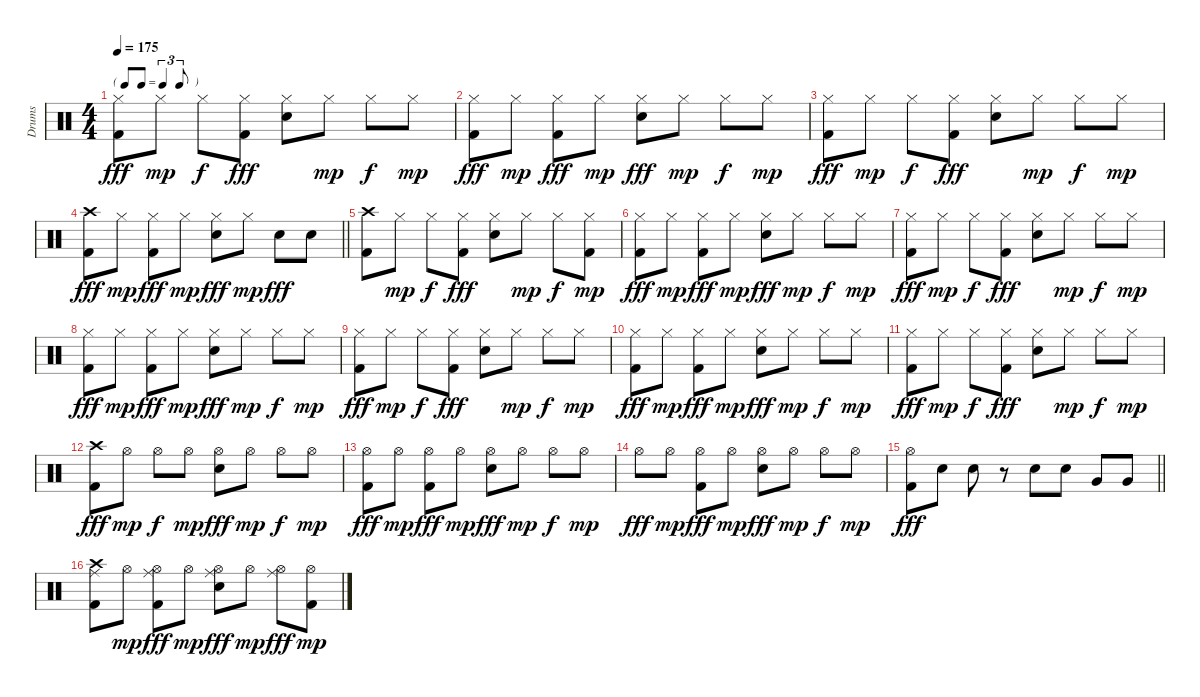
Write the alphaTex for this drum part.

\track ("Drums" "Drums") {instrument percussion}
\staff {score}
\articulation defaults
\ts (4 4)
\tf triplet8th
\tempo 175
\clef neutral
\ks c
("Hi-Hat (closed)" "Kick (hit) 2").8{dy fff} "Hi-Hat (closed)".8{dy mp} "Hi-Hat (closed)".8{dy f} ("Hi-Hat (closed)" "Kick (hit) 2").8{dy fff} ("Hi-Hat (closed)" "Electric Snare (hit)").8 "Hi-Hat (closed)".8{dy mp} "Hi-Hat (closed)".8{dy f} "Hi-Hat (closed)".8{dy mp} |
("Hi-Hat (closed)" "Kick (hit) 2").8{dy fff} "Hi-Hat (closed)".8{dy mp} ("Hi-Hat (closed)" "Kick (hit) 2").8{dy fff} "Hi-Hat (closed)".8{dy mp} ("Hi-Hat (closed)" "Electric Snare (hit)").8{dy fff} "Hi-Hat (closed)".8{dy mp} "Hi-Hat (closed)".8{dy f} "Hi-Hat (closed)".8{dy mp} |
("Hi-Hat (closed)" "Kick (hit) 2").8{dy fff} "Hi-Hat (closed)".8{dy mp} "Hi-Hat (closed)".8{dy f} ("Hi-Hat (closed)" "Kick (hit) 2").8{dy fff} ("Hi-Hat (closed)" "Electric Snare (hit)").8 "Hi-Hat (closed)".8{dy mp} "Hi-Hat (closed)".8{dy f} "Hi-Hat (closed)".8{dy mp} |
\barLineRight lightlight
("Crash high (hit)" "Kick (hit) 2").8{dy fff} "Hi-Hat (closed)".8{dy mp} ("Hi-Hat (closed)" "Kick (hit) 2").8{dy fff} "Hi-Hat (closed)".8{dy mp} ("Hi-Hat (closed)" "Electric Snare (hit)").8{dy fff} "Hi-Hat (closed)".8{dy mp} "Electric Snare (hit)".8{dy fff} "Electric Snare (hit)".8 |
("Crash high (hit)" "Kick (hit) 2").8 "Hi-Hat (closed)".8{dy mp} "Hi-Hat (closed)".8{dy f} ("Hi-Hat (closed)" "Kick (hit) 2").8{dy fff} ("Hi-Hat (closed)" "Electric Snare (hit)").8 "Hi-Hat (closed)".8{dy mp} "Hi-Hat (closed)".8{dy f} ("Hi-Hat (closed)" "Kick (hit) 2").8{dy mp} |
("Hi-Hat (closed)" "Kick (hit) 2").8{dy fff} "Hi-Hat (closed)".8{dy mp} ("Hi-Hat (closed)" "Kick (hit) 2").8{dy fff} "Hi-Hat (closed)".8{dy mp} ("Hi-Hat (closed)" "Electric Snare (hit)").8{dy fff} "Hi-Hat (closed)".8{dy mp} "Hi-Hat (closed)".8{dy f} "Hi-Hat (closed)".8{dy mp} |
("Hi-Hat (closed)" "Kick (hit) 2").8{dy fff} "Hi-Hat (closed)".8{dy mp} "Hi-Hat (closed)".8{dy f} ("Hi-Hat (closed)" "Kick (hit) 2").8{dy fff} ("Hi-Hat (closed)" "Electric Snare (hit)").8 "Hi-Hat (closed)".8{dy mp} "Hi-Hat (closed)".8{dy f} "Hi-Hat (closed)".8{dy mp} |
("Hi-Hat (closed)" "Kick (hit) 2").8{dy fff} "Hi-Hat (closed)".8{dy mp} ("Hi-Hat (closed)" "Kick (hit) 2").8{dy fff} "Hi-Hat (closed)".8{dy mp} ("Hi-Hat (closed)" "Electric Snare (hit)").8{dy fff} "Hi-Hat (closed)".8{dy mp} "Hi-Hat (closed)".8{dy f} "Hi-Hat (closed)".8{dy mp} |
("Hi-Hat (closed)" "Kick (hit) 2").8{dy fff} "Hi-Hat (closed)".8{dy mp} "Hi-Hat (closed)".8{dy f} ("Hi-Hat (closed)" "Kick (hit) 2").8{dy fff} ("Hi-Hat (closed)" "Electric Snare (hit)").8 "Hi-Hat (closed)".8{dy mp} "Hi-Hat (closed)".8{dy f} "Hi-Hat (closed)".8{dy mp} |
("Hi-Hat (closed)" "Kick (hit) 2").8{dy fff} "Hi-Hat (closed)".8{dy mp} ("Hi-Hat (closed)" "Kick (hit) 2").8{dy fff} "Hi-Hat (closed)".8{dy mp} ("Hi-Hat (closed)" "Electric Snare (hit)").8{dy fff} "Hi-Hat (closed)".8{dy mp} "Hi-Hat (closed)".8{dy f} "Hi-Hat (closed)".8{dy mp} |
("Hi-Hat (closed)" "Kick (hit) 2").8{dy fff} "Hi-Hat (closed)".8{dy mp} "Hi-Hat (closed)".8{dy f} ("Hi-Hat (closed)" "Kick (hit) 2").8{dy fff} ("Hi-Hat (closed)" "Electric Snare (hit)").8 "Hi-Hat (closed)".8{dy mp} "Hi-Hat (closed)".8{dy f} "Hi-Hat (closed)".8{dy mp} |
("Crash high (hit)" "Kick (hit) 2").8{dy fff} "Hi-Hat (open)".8{dy mp} "Hi-Hat (open)".8{dy f} "Hi-Hat (open)".8{dy mp} ("Hi-Hat (open)" "Electric Snare (hit)").8{dy fff} "Hi-Hat (open)".8{dy mp} "Hi-Hat (open)".8{dy f} "Hi-Hat (open)".8{dy mp} |
("Hi-Hat (open)" "Kick (hit) 2").8{dy fff} "Hi-Hat (open)".8{dy mp} ("Hi-Hat (open)" "Kick (hit) 2").8{dy fff} "Hi-Hat (open)".8{dy mp} ("Hi-Hat (open)" "Electric Snare (hit)").8{dy fff} "Hi-Hat (open)".8{dy mp} "Hi-Hat (open)".8{dy f} "Hi-Hat (open)".8{dy mp} |
"Hi-Hat (open)".8{dy fff} "Hi-Hat (open)".8{dy mp} ("Hi-Hat (open)" "Kick (hit) 2").8{dy fff} "Hi-Hat (open)".8{dy mp} ("Hi-Hat (open)" "Electric Snare (hit)").8{dy fff} "Hi-Hat (open)".8{dy mp} "Hi-Hat (open)".8{dy f} "Hi-Hat (open)".8{dy mp} |
\barLineRight lightlight
("Hi-Hat (open)" "Kick (hit) 2").8{dy fff} "Electric Snare (hit)".8 "Electric Snare (hit)".8 r.8 "Electric Snare (hit)".8 "Electric Snare (hit)".8 "Very Low Tom (hit)".8 "Very Low Tom (hit)".8 |
("Crash high (hit)" "Ride (middle)" "Kick (hit) 2").8 "Hi-Hat (open)".8{dy mp} ("Hi-Hat (open)" "Ride (middle)" "Kick (hit) 2").8{dy fff} "Hi-Hat (open)".8{dy mp} ("Hi-Hat (open)" "Ride (middle)" "Electric Snare (hit)").8{dy fff} "Hi-Hat (open)".8{dy mp} ("Hi-Hat (open)" "Ride (middle)").8{dy fff} ("Hi-Hat (open)" "Kick (hit) 2").8{dy mp}
